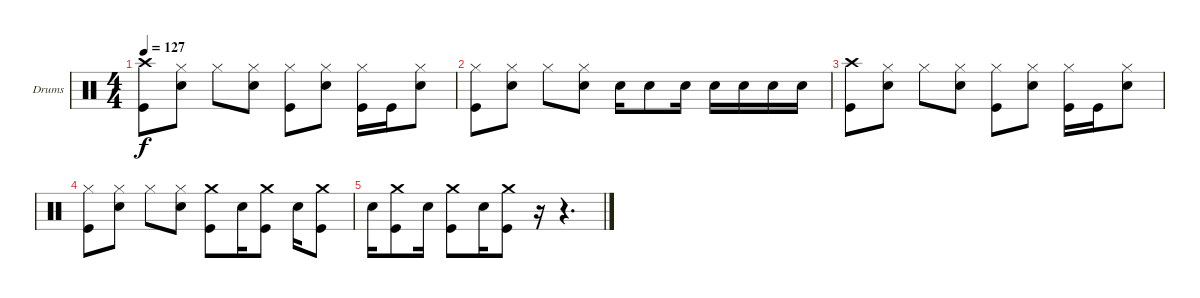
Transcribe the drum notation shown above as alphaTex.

\bracketExtendMode nobrackets
\firstSystemTrackNameOrientation horizontal
\otherSystemsTrackNameOrientation horizontal
\track ("Matt Cameron" "Drums") {instrument percussion}
\staff {score}
\articulation defaults
\ts (4 4)
\tempo 127
\clef neutral
\scale
0.333333
\ks c
("Kick (hit)" "Crash high (hit)").8{dy f} ("Snare (hit) 2" "Hi-Hat (closed)").8 "Hi-Hat (closed)".8 ("Snare (hit) 2" "Hi-Hat (closed)").8 ("Kick (hit)" "Hi-Hat (closed)").8 ("Snare (hit) 2" "Hi-Hat (closed)").8 ("Kick (hit)" "Hi-Hat (closed)").16 "Kick (hit)".16 ("Snare (hit) 2" "Hi-Hat (closed)").8 |
\scale
0.333333 ("Kick (hit)" "Hi-Hat (closed)").8 ("Snare (hit) 2" "Hi-Hat (closed)").8 "Hi-Hat (closed)".8 ("Snare (hit) 2" "Hi-Hat (closed)").8 "Snare (hit) 2".16 "Snare (hit) 2".8 "Snare (hit) 2".16 "Snare (hit) 2".16 "Snare (hit) 2".16 "Snare (hit) 2".16 "Snare (hit) 2".16 |
\scale
0.333333 ("Kick (hit)" "Crash high (hit)").8 ("Snare (hit) 2" "Hi-Hat (closed)").8 "Hi-Hat (closed)".8 ("Snare (hit) 2" "Hi-Hat (closed)").8 ("Kick (hit)" "Hi-Hat (closed)").8 ("Snare (hit) 2" "Hi-Hat (closed)").8 ("Kick (hit)" "Hi-Hat (closed)").16 "Kick (hit)".16 ("Snare (hit) 2" "Hi-Hat (closed)").8 |
\scale
0.333333 ("Kick (hit)" "Hi-Hat (closed)").8 ("Snare (hit) 2" "Hi-Hat (closed)").8 "Hi-Hat (closed)".8 ("Snare (hit) 2" "Hi-Hat (closed)").8 ("Kick (hit)" "Crash medium (hit)").8 "Snare (hit) 2".16 ("Kick (hit)" "Crash medium (hit)").8 "Snare (hit) 2".16 ("Kick (hit)" "Crash medium (hit)").8 |
"Snare (hit) 2".16 ("Kick (hit)" "Crash medium (hit)").8 "Snare (hit) 2".16 ("Kick (hit)" "Crash medium (hit)").8 "Snare (hit) 2".16 ("Kick (hit)" "Crash medium (hit)").8 r.16 r.4{d}
